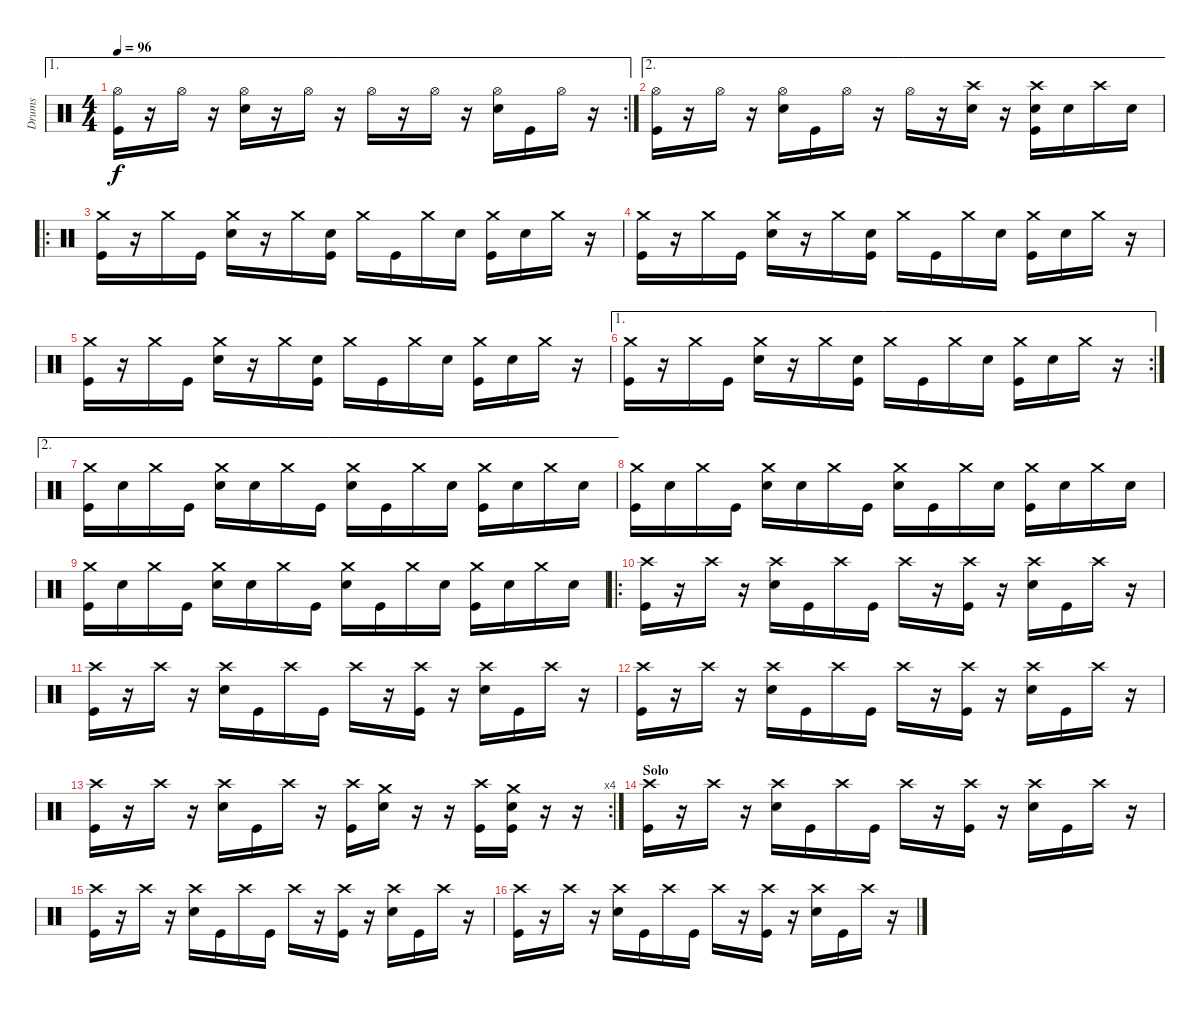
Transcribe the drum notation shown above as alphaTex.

\track ("Drums" "Drums") {instrument percussion}
\staff {score}
\articulation defaults
\ae 1
\rc 2
\ts (4 4)
\tempo 96
\clef neutral
\ks c
("Hi-Hat (open)" "Kick (hit)").16{dy f} r.16 "Hi-Hat (open)".16 r.16 ("Hi-Hat (open)" "Snare (hit) 2").16 r.16 "Hi-Hat (open)".16 r.16 "Hi-Hat (open)".16 r.16 "Hi-Hat (open)".16 r.16 ("Hi-Hat (open)" "Snare (hit) 2").16 "Kick (hit)".16 "Hi-Hat (open)".16 r.16 |
\ae 2
("Hi-Hat (open)" "Kick (hit)").16 r.16 "Hi-Hat (open)".16 r.16 ("Hi-Hat (open)" "Snare (hit) 2").16 "Kick (hit)".16 "Hi-Hat (open)".16 r.16 "Hi-Hat (open)".16 r.16 ("Crash high (hit)" "Snare (hit) 2").16 r.16 ("Crash high (hit)" "Snare (hit) 2" "Kick (hit)").16 "Snare (hit) 2".16 "Crash high (hit)".16 "Snare (hit) 2".16 |
\ro
("Crash medium (hit)" "Kick (hit)").16 r.16 "Crash medium (hit)".16 "Kick (hit)".16 ("Crash medium (hit)" "Snare (hit) 2").16 r.16 "Crash medium (hit)".16 ("Snare (hit) 2" "Kick (hit)").16 "Crash medium (hit)".16 "Kick (hit)".16 "Crash medium (hit)".16 "Snare (hit) 2".16 ("Crash medium (hit)" "Kick (hit)").16 "Snare (hit) 2".16 "Crash medium (hit)".16 r.16 |
("Crash medium (hit)" "Kick (hit)").16 r.16 "Crash medium (hit)".16 "Kick (hit)".16 ("Crash medium (hit)" "Snare (hit) 2").16 r.16 "Crash medium (hit)".16 ("Snare (hit) 2" "Kick (hit)").16 "Crash medium (hit)".16 "Kick (hit)".16 "Crash medium (hit)".16 "Snare (hit) 2".16 ("Crash medium (hit)" "Kick (hit)").16 "Snare (hit) 2".16 "Crash medium (hit)".16 r.16 |
("Crash medium (hit)" "Kick (hit)").16 r.16 "Crash medium (hit)".16 "Kick (hit)".16 ("Crash medium (hit)" "Snare (hit) 2").16 r.16 "Crash medium (hit)".16 ("Snare (hit) 2" "Kick (hit)").16 "Crash medium (hit)".16 "Kick (hit)".16 "Crash medium (hit)".16 "Snare (hit) 2".16 ("Crash medium (hit)" "Kick (hit)").16 "Snare (hit) 2".16 "Crash medium (hit)".16 r.16 |
\ae 1
\rc 2
("Crash medium (hit)" "Kick (hit)").16 r.16 "Crash medium (hit)".16 "Kick (hit)".16 ("Crash medium (hit)" "Snare (hit) 2").16 r.16 "Crash medium (hit)".16 ("Snare (hit) 2" "Kick (hit)").16 "Crash medium (hit)".16 "Kick (hit)".16 "Crash medium (hit)".16 "Snare (hit) 2".16 ("Crash medium (hit)" "Kick (hit)").16 "Snare (hit) 2".16 "Crash medium (hit)".16 r.16 |
\ae 2
("Crash medium (hit)" "Kick (hit)").16 "Snare (hit) 2".16 "Crash medium (hit)".16 "Kick (hit)".16 ("Crash medium (hit)" "Snare (hit) 2").16 "Snare (hit) 2".16 "Crash medium (hit)".16 "Kick (hit)".16 ("Crash medium (hit)" "Snare (hit) 2").16 "Kick (hit)".16 "Crash medium (hit)".16 "Snare (hit) 2".16 ("Crash medium (hit)" "Kick (hit)").16 "Snare (hit) 2".16 "Crash medium (hit)".16 "Snare (hit) 2".16 |
("Crash medium (hit)" "Kick (hit)").16 "Snare (hit) 2".16 "Crash medium (hit)".16 "Kick (hit)".16 ("Crash medium (hit)" "Snare (hit) 2").16 "Snare (hit) 2".16 "Crash medium (hit)".16 "Kick (hit)".16 ("Crash medium (hit)" "Snare (hit) 2").16 "Kick (hit)".16 "Crash medium (hit)".16 "Snare (hit) 2".16 ("Crash medium (hit)" "Kick (hit)").16 "Snare (hit) 2".16 "Crash medium (hit)".16 "Snare (hit) 2".16 |
("Crash medium (hit)" "Kick (hit)").16 "Snare (hit) 2".16 "Crash medium (hit)".16 "Kick (hit)".16 ("Crash medium (hit)" "Snare (hit) 2").16 "Snare (hit) 2".16 "Crash medium (hit)".16 "Kick (hit)".16 ("Crash medium (hit)" "Snare (hit) 2").16 "Kick (hit)".16 "Crash medium (hit)".16 "Snare (hit) 2".16 ("Crash medium (hit)" "Kick (hit)").16 "Snare (hit) 2".16 "Crash medium (hit)".16 "Snare (hit) 2".16 |
\ro
("Crash high (hit)" "Kick (hit)").16 r.16 "Crash high (hit)".16 r.16 ("Crash high (hit)" "Snare (hit) 2").16 "Kick (hit)".16 "Crash high (hit)".16 "Kick (hit)".16 "Crash high (hit)".16 r.16 ("Crash high (hit)" "Kick (hit)").16 r.16 ("Crash high (hit)" "Snare (hit) 2").16 "Kick (hit)".16 "Crash high (hit)".16 r.16 |
("Crash high (hit)" "Kick (hit)").16 r.16 "Crash high (hit)".16 r.16 ("Crash high (hit)" "Snare (hit) 2").16 "Kick (hit)".16 "Crash high (hit)".16 "Kick (hit)".16 "Crash high (hit)".16 r.16 ("Crash high (hit)" "Kick (hit)").16 r.16 ("Crash high (hit)" "Snare (hit) 2").16 "Kick (hit)".16 "Crash high (hit)".16 r.16 |
("Crash high (hit)" "Kick (hit)").16 r.16 "Crash high (hit)".16 r.16 ("Crash high (hit)" "Snare (hit) 2").16 "Kick (hit)".16 "Crash high (hit)".16 "Kick (hit)".16 "Crash high (hit)".16 r.16 ("Crash high (hit)" "Kick (hit)").16 r.16 ("Crash high (hit)" "Snare (hit) 2").16 "Kick (hit)".16 "Crash high (hit)".16 r.16 |
\rc 4
("Crash high (hit)" "Kick (hit)").16 r.16 "Crash high (hit)".16 r.16 ("Crash high (hit)" "Snare (hit) 2").16 "Kick (hit)".16 "Crash high (hit)".16 r.16 ("Crash high (hit)" "Kick (hit)").16 ("Crash medium (hit)" "Snare (hit) 2").16 r.16 r.16 ("Crash high (hit)" "Kick (hit)").16 ("Crash medium (hit)" "Snare (hit) 2" "Kick (hit)").16 r.16 r.16 |
\section ("" "Solo")
("Crash high (hit)" "Kick (hit)").16 r.16 "Crash high (hit)".16 r.16 ("Crash high (hit)" "Snare (hit) 2").16 "Kick (hit)".16 "Crash high (hit)".16 "Kick (hit)".16 "Crash high (hit)".16 r.16 ("Crash high (hit)" "Kick (hit)").16 r.16 ("Crash high (hit)" "Snare (hit) 2").16 "Kick (hit)".16 "Crash high (hit)".16 r.16 |
("Crash high (hit)" "Kick (hit)").16 r.16 "Crash high (hit)".16 r.16 ("Crash high (hit)" "Snare (hit) 2").16 "Kick (hit)".16 "Crash high (hit)".16 "Kick (hit)".16 "Crash high (hit)".16 r.16 ("Crash high (hit)" "Kick (hit)").16 r.16 ("Crash high (hit)" "Snare (hit) 2").16 "Kick (hit)".16 "Crash high (hit)".16 r.16 |
("Crash high (hit)" "Kick (hit)").16 r.16 "Crash high (hit)".16 r.16 ("Crash high (hit)" "Snare (hit) 2").16 "Kick (hit)".16 "Crash high (hit)".16 "Kick (hit)".16 "Crash high (hit)".16 r.16 ("Crash high (hit)" "Kick (hit)").16 r.16 ("Crash high (hit)" "Snare (hit) 2").16 "Kick (hit)".16 "Crash high (hit)".16 r.16
